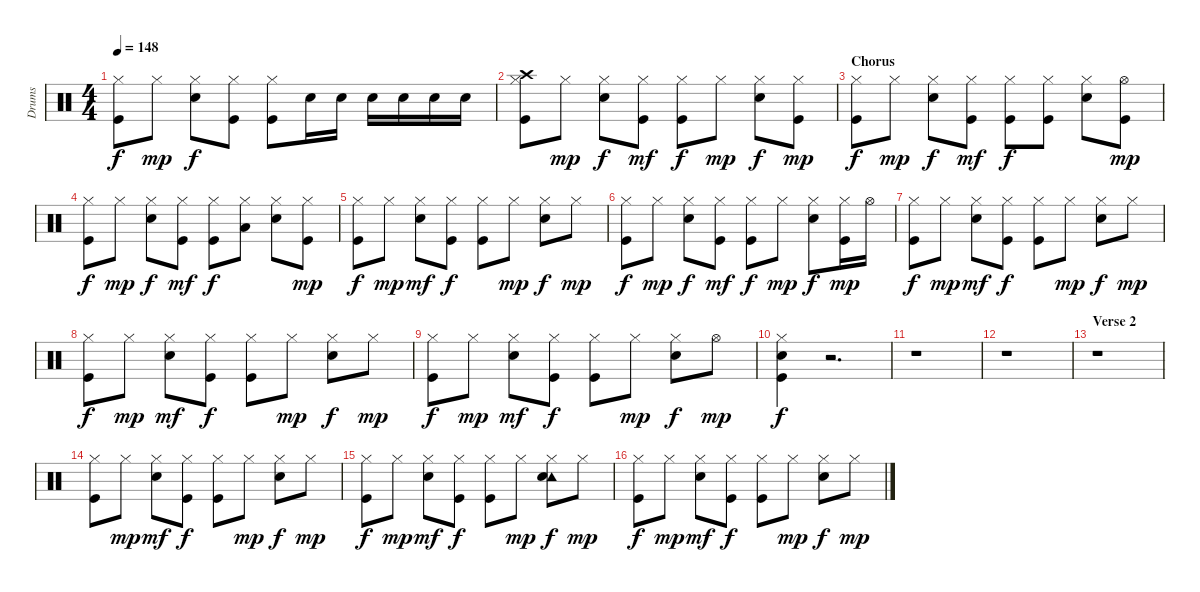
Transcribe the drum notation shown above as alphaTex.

\track ("Drums   " "Drums   ") {instrument percussion}
\staff {score}
\articulation defaults
\ts (4 4)
\tempo 148
\clef neutral
\ks c
("Hi-Hat (closed)" "Kick (hit)").8{dy f} "Hi-Hat (closed)".8{dy mp} ("Hi-Hat (closed)" "Snare (hit) 2").8{dy f} ("Hi-Hat (closed)" "Kick (hit)").8 ("Hi-Hat (closed)" "Kick (hit)").8 "Snare (hit) 2".16 "Snare (hit) 2".16 "Snare (hit) 2".16 "Snare (hit) 2".16 "Snare (hit) 2".16 "Snare (hit) 2".16 |
("Hi-Hat (closed)" "Crash high (hit)" "Kick (hit)").8 "Hi-Hat (closed)".8{dy mp} ("Hi-Hat (closed)" "Snare (hit) 2").8{dy f} ("Hi-Hat (closed)" "Kick (hit)").8{dy mf} ("Hi-Hat (closed)" "Kick (hit)").8{dy f} "Hi-Hat (closed)".8{dy mp} ("Hi-Hat (closed)" "Snare (hit) 2").8{dy f} ("Hi-Hat (closed)" "Kick (hit)").8{dy mp} |
\section ("" "Chorus")
("Hi-Hat (closed)" "Kick (hit)").8{dy f} "Hi-Hat (closed)".8{dy mp} ("Hi-Hat (closed)" "Snare (hit) 2").8{dy f} ("Hi-Hat (closed)" "Kick (hit)").8{dy mf} ("Hi-Hat (closed)" "Kick (hit)").8{dy f} ("Hi-Hat (closed)" "Kick (hit)").8 ("Hi-Hat (closed)" "Snare (hit) 2").8 ("Hi-Hat (open)" "Kick (hit)").8{dy mp} |
("Hi-Hat (closed)" "Kick (hit)").8{dy f} "Hi-Hat (closed)".8{dy mp} ("Hi-Hat (closed)" "Snare (hit) 2").8{dy f} ("Hi-Hat (closed)" "Kick (hit)").8{dy mf} ("Hi-Hat (closed)" "Kick (hit)").8{dy f} ("Hi-Hat (closed)" "Low Floor Tom (hit)").8 ("Hi-Hat (closed)" "Snare (hit) 2").8 ("Hi-Hat (closed)" "Kick (hit)").8{dy mp} |
("Hi-Hat (closed)" "Kick (hit)").8{dy f} "Hi-Hat (closed)".8{dy mp} ("Hi-Hat (closed)" "Snare (hit) 2").8{dy mf} ("Hi-Hat (closed)" "Kick (hit)").8{dy f} ("Hi-Hat (closed)" "Kick (hit)").8 "Hi-Hat (closed)".8{dy mp} ("Hi-Hat (closed)" "Snare (hit) 2").8{dy f} "Hi-Hat (closed)".8{dy mp} |
("Hi-Hat (closed)" "Kick (hit)").8{dy f} "Hi-Hat (closed)".8{dy mp} ("Hi-Hat (closed)" "Snare (hit) 2").8{dy f} ("Hi-Hat (closed)" "Kick (hit)").8{dy mf} ("Hi-Hat (closed)" "Kick (hit)").8{dy f} "Hi-Hat (closed)".8{dy mp} ("Hi-Hat (closed)" "Snare (hit) 2").8{dy f} ("Hi-Hat (closed)" "Kick (hit)").16{dy mp} "Hi-Hat (open)".16 |
("Hi-Hat (closed)" "Kick (hit)").8{dy f} "Hi-Hat (closed)".8{dy mp} ("Hi-Hat (closed)" "Snare (hit) 2").8{dy mf} ("Hi-Hat (closed)" "Kick (hit)").8{dy f} ("Hi-Hat (closed)" "Kick (hit)").8 "Hi-Hat (closed)".8{dy mp} ("Hi-Hat (closed)" "Snare (hit) 2").8{dy f} "Hi-Hat (closed)".8{dy mp} |
("Hi-Hat (closed)" "Kick (hit)").8{dy f} "Hi-Hat (closed)".8{dy mp} ("Hi-Hat (closed)" "Snare (hit) 2").8{dy mf} ("Hi-Hat (closed)" "Kick (hit)").8{dy f} ("Hi-Hat (closed)" "Kick (hit)").8 "Hi-Hat (closed)".8{dy mp} ("Hi-Hat (closed)" "Snare (hit) 2").8{dy f} "Hi-Hat (closed)".8{dy mp} |
("Hi-Hat (closed)" "Kick (hit)").8{dy f} "Hi-Hat (closed)".8{dy mp} ("Hi-Hat (closed)" "Snare (hit) 2").8{dy mf} ("Hi-Hat (closed)" "Kick (hit)").8{dy f} ("Hi-Hat (closed)" "Kick (hit)").8 "Hi-Hat (closed)".8{dy mp} ("Hi-Hat (closed)" "Snare (hit) 2").8{dy f} "Hi-Hat (open)".8{dy mp} |
("Hi-Hat (closed)" "Snare (hit) 2" "Kick (hit)").4{dy f} r.2{d} |
r.1 |
r.1 |
\section ("" "Verse 2")
r.1 |
("Hi-Hat (closed)" "Kick (hit)").8 "Hi-Hat (closed)".8{dy mp} ("Hi-Hat (closed)" "Snare (hit) 2").8{dy mf} ("Hi-Hat (closed)" "Kick (hit)").8{dy f} ("Hi-Hat (closed)" "Kick (hit)").8 "Hi-Hat (closed)".8{dy mp} ("Hi-Hat (closed)" "Snare (hit) 2").8{dy f} "Hi-Hat (closed)".8{dy mp} |
("Hi-Hat (closed)" "Kick (hit)").8{dy f} "Hi-Hat (closed)".8{dy mp} ("Hi-Hat (closed)" "Snare (hit) 2").8{dy mf} ("Hi-Hat (closed)" "Kick (hit)").8{dy f} ("Hi-Hat (closed)" "Kick (hit)").8 "Hi-Hat (closed)".8{dy mp} ("Hi-Hat (closed)" "Tambourine (hit)" "Snare (hit) 2").8{dy f} "Hi-Hat (closed)".8{dy mp} |
("Hi-Hat (closed)" "Kick (hit)").8{dy f} "Hi-Hat (closed)".8{dy mp} ("Hi-Hat (closed)" "Snare (hit) 2").8{dy mf} ("Hi-Hat (closed)" "Kick (hit)").8{dy f} ("Hi-Hat (closed)" "Kick (hit)").8 "Hi-Hat (closed)".8{dy mp} ("Hi-Hat (closed)" "Snare (hit) 2").8{dy f} "Hi-Hat (closed)".8{dy mp}
